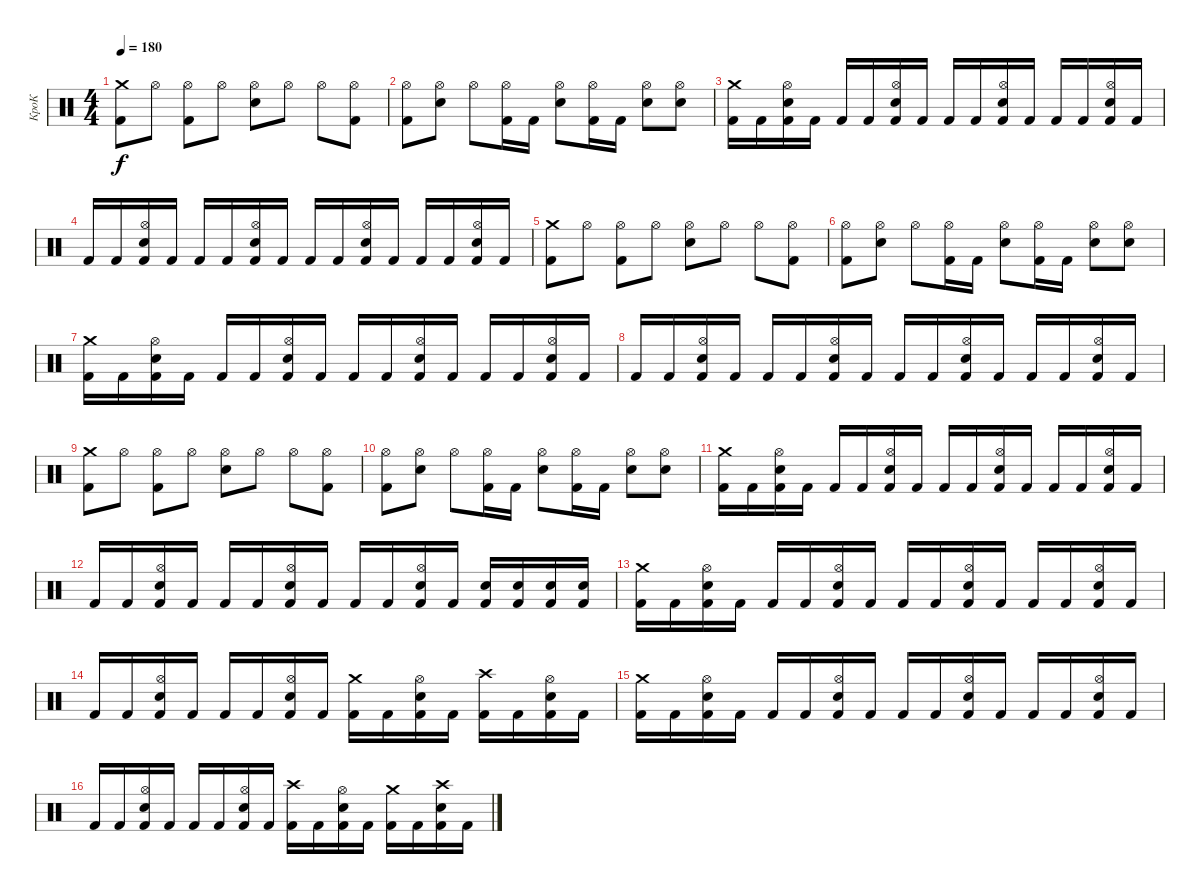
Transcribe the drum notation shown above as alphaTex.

\track ("КроК" "КроК") {instrument percussion}
\staff {score}
\articulation defaults
\ts (4 4)
\tempo 180
\clef neutral
\ks c
("Kick (hit) 2" "Crash medium (hit)").8{dy f} "Hi-Hat (open)".8 ("Kick (hit) 2" "Hi-Hat (open)").8 "Hi-Hat (open)".8 ("Electric Snare (hit)" "Hi-Hat (open)").8 "Hi-Hat (open)".8 "Hi-Hat (open)".8 ("Kick (hit) 2" "Hi-Hat (open)").8 |
("Kick (hit) 2" "Hi-Hat (open)").8 ("Electric Snare (hit)" "Hi-Hat (open)").8 "Hi-Hat (open)".8 ("Kick (hit) 2" "Hi-Hat (open)").16 "Kick (hit) 2".16 ("Electric Snare (hit)" "Hi-Hat (open)").8 ("Kick (hit) 2" "Hi-Hat (open)").16 "Kick (hit) 2".16 ("Electric Snare (hit)" "Hi-Hat (open)").8 ("Electric Snare (hit)" "Hi-Hat (open)").8 |
("Kick (hit) 2" "Crash medium (hit)").16 "Kick (hit) 2".16 ("Kick (hit) 2" "Electric Snare (hit)" "Hi-Hat (open)").16 "Kick (hit) 2".16 "Kick (hit) 2".16 "Kick (hit) 2".16 ("Kick (hit) 2" "Electric Snare (hit)" "Hi-Hat (open)").16 "Kick (hit) 2".16 "Kick (hit) 2".16 "Kick (hit) 2".16 ("Kick (hit) 2" "Electric Snare (hit)" "Hi-Hat (open)").16 "Kick (hit) 2".16 "Kick (hit) 2".16 "Kick (hit) 2".16 ("Kick (hit) 2" "Electric Snare (hit)" "Hi-Hat (open)").16 "Kick (hit) 2".16 |
"Kick (hit) 2".16 "Kick (hit) 2".16 ("Kick (hit) 2" "Electric Snare (hit)" "Hi-Hat (open)").16 "Kick (hit) 2".16 "Kick (hit) 2".16 "Kick (hit) 2".16 ("Kick (hit) 2" "Electric Snare (hit)" "Hi-Hat (open)").16 "Kick (hit) 2".16 "Kick (hit) 2".16 "Kick (hit) 2".16 ("Kick (hit) 2" "Electric Snare (hit)" "Hi-Hat (open)").16 "Kick (hit) 2".16 "Kick (hit) 2".16 "Kick (hit) 2".16 ("Kick (hit) 2" "Electric Snare (hit)" "Hi-Hat (open)").16 "Kick (hit) 2".16 |
("Kick (hit) 2" "Crash medium (hit)").8 "Hi-Hat (open)".8 ("Kick (hit) 2" "Hi-Hat (open)").8 "Hi-Hat (open)".8 ("Electric Snare (hit)" "Hi-Hat (open)").8 "Hi-Hat (open)".8 "Hi-Hat (open)".8 ("Kick (hit) 2" "Hi-Hat (open)").8 |
("Kick (hit) 2" "Hi-Hat (open)").8 ("Electric Snare (hit)" "Hi-Hat (open)").8 "Hi-Hat (open)".8 ("Kick (hit) 2" "Hi-Hat (open)").16 "Kick (hit) 2".16 ("Electric Snare (hit)" "Hi-Hat (open)").8 ("Kick (hit) 2" "Hi-Hat (open)").16 "Kick (hit) 2".16 ("Electric Snare (hit)" "Hi-Hat (open)").8 ("Electric Snare (hit)" "Hi-Hat (open)").8 |
("Kick (hit) 2" "Crash medium (hit)").16 "Kick (hit) 2".16 ("Kick (hit) 2" "Electric Snare (hit)" "Hi-Hat (open)").16 "Kick (hit) 2".16 "Kick (hit) 2".16 "Kick (hit) 2".16 ("Kick (hit) 2" "Electric Snare (hit)" "Hi-Hat (open)").16 "Kick (hit) 2".16 "Kick (hit) 2".16 "Kick (hit) 2".16 ("Kick (hit) 2" "Electric Snare (hit)" "Hi-Hat (open)").16 "Kick (hit) 2".16 "Kick (hit) 2".16 "Kick (hit) 2".16 ("Kick (hit) 2" "Electric Snare (hit)" "Hi-Hat (open)").16 "Kick (hit) 2".16 |
"Kick (hit) 2".16 "Kick (hit) 2".16 ("Kick (hit) 2" "Electric Snare (hit)" "Hi-Hat (open)").16 "Kick (hit) 2".16 "Kick (hit) 2".16 "Kick (hit) 2".16 ("Kick (hit) 2" "Electric Snare (hit)" "Hi-Hat (open)").16 "Kick (hit) 2".16 "Kick (hit) 2".16 "Kick (hit) 2".16 ("Kick (hit) 2" "Electric Snare (hit)" "Hi-Hat (open)").16 "Kick (hit) 2".16 "Kick (hit) 2".16 "Kick (hit) 2".16 ("Kick (hit) 2" "Electric Snare (hit)" "Hi-Hat (open)").16 "Kick (hit) 2".16 |
("Kick (hit) 2" "Crash medium (hit)").8 "Hi-Hat (open)".8 ("Kick (hit) 2" "Hi-Hat (open)").8 "Hi-Hat (open)".8 ("Electric Snare (hit)" "Hi-Hat (open)").8 "Hi-Hat (open)".8 "Hi-Hat (open)".8 ("Kick (hit) 2" "Hi-Hat (open)").8 |
("Kick (hit) 2" "Hi-Hat (open)").8 ("Electric Snare (hit)" "Hi-Hat (open)").8 "Hi-Hat (open)".8 ("Kick (hit) 2" "Hi-Hat (open)").16 "Kick (hit) 2".16 ("Electric Snare (hit)" "Hi-Hat (open)").8 ("Kick (hit) 2" "Hi-Hat (open)").16 "Kick (hit) 2".16 ("Electric Snare (hit)" "Hi-Hat (open)").8 ("Electric Snare (hit)" "Hi-Hat (open)").8 |
("Kick (hit) 2" "Crash medium (hit)").16 "Kick (hit) 2".16 ("Kick (hit) 2" "Electric Snare (hit)" "Hi-Hat (open)").16 "Kick (hit) 2".16 "Kick (hit) 2".16 "Kick (hit) 2".16 ("Kick (hit) 2" "Electric Snare (hit)" "Hi-Hat (open)").16 "Kick (hit) 2".16 "Kick (hit) 2".16 "Kick (hit) 2".16 ("Kick (hit) 2" "Electric Snare (hit)" "Hi-Hat (open)").16 "Kick (hit) 2".16 "Kick (hit) 2".16 "Kick (hit) 2".16 ("Kick (hit) 2" "Electric Snare (hit)" "Hi-Hat (open)").16 "Kick (hit) 2".16 |
"Kick (hit) 2".16 "Kick (hit) 2".16 ("Kick (hit) 2" "Electric Snare (hit)" "Hi-Hat (open)").16 "Kick (hit) 2".16 "Kick (hit) 2".16 "Kick (hit) 2".16 ("Kick (hit) 2" "Electric Snare (hit)" "Hi-Hat (open)").16 "Kick (hit) 2".16 "Kick (hit) 2".16 "Kick (hit) 2".16 ("Kick (hit) 2" "Electric Snare (hit)" "Hi-Hat (open)").16 "Kick (hit) 2".16 ("Kick (hit) 2" "Electric Snare (hit)").16 ("Kick (hit) 2" "Electric Snare (hit)").16 ("Kick (hit) 2" "Electric Snare (hit)").16 ("Kick (hit) 2" "Electric Snare (hit)").16 |
("Kick (hit) 2" "Crash medium (hit)").16 "Kick (hit) 2".16 ("Kick (hit) 2" "Electric Snare (hit)" "Hi-Hat (open)").16 "Kick (hit) 2".16 "Kick (hit) 2".16 "Kick (hit) 2".16 ("Kick (hit) 2" "Electric Snare (hit)" "Hi-Hat (open)").16 "Kick (hit) 2".16 "Kick (hit) 2".16 "Kick (hit) 2".16 ("Kick (hit) 2" "Electric Snare (hit)" "Hi-Hat (open)").16 "Kick (hit) 2".16 "Kick (hit) 2".16 "Kick (hit) 2".16 ("Kick (hit) 2" "Electric Snare (hit)" "Hi-Hat (open)").16 "Kick (hit) 2".16 |
"Kick (hit) 2".16 "Kick (hit) 2".16 ("Kick (hit) 2" "Electric Snare (hit)" "Hi-Hat (open)").16 "Kick (hit) 2".16 "Kick (hit) 2".16 "Kick (hit) 2".16 ("Kick (hit) 2" "Electric Snare (hit)" "Hi-Hat (open)").16 "Kick (hit) 2".16 ("Kick (hit) 2" "Crash medium (hit)").16 "Kick (hit) 2".16 ("Kick (hit) 2" "Electric Snare (hit)" "Hi-Hat (open)").16 "Kick (hit) 2".16 ("Kick (hit) 2" "Crash high (hit)").16 "Kick (hit) 2".16 ("Kick (hit) 2" "Electric Snare (hit)" "Hi-Hat (open)").16 "Kick (hit) 2".16 |
("Kick (hit) 2" "Crash medium (hit)").16 "Kick (hit) 2".16 ("Kick (hit) 2" "Electric Snare (hit)" "Hi-Hat (open)").16 "Kick (hit) 2".16 "Kick (hit) 2".16 "Kick (hit) 2".16 ("Kick (hit) 2" "Electric Snare (hit)" "Hi-Hat (open)").16 "Kick (hit) 2".16 "Kick (hit) 2".16 "Kick (hit) 2".16 ("Kick (hit) 2" "Electric Snare (hit)" "Hi-Hat (open)").16 "Kick (hit) 2".16 "Kick (hit) 2".16 "Kick (hit) 2".16 ("Kick (hit) 2" "Electric Snare (hit)" "Hi-Hat (open)").16 "Kick (hit) 2".16 |
"Kick (hit) 2".16 "Kick (hit) 2".16 ("Kick (hit) 2" "Electric Snare (hit)" "Hi-Hat (open)").16 "Kick (hit) 2".16 "Kick (hit) 2".16 "Kick (hit) 2".16 ("Kick (hit) 2" "Electric Snare (hit)" "Hi-Hat (open)").16 "Kick (hit) 2".16 ("Kick (hit) 2" "Crash high (hit)").16 "Kick (hit) 2".16 ("Kick (hit) 2" "Electric Snare (hit)" "Hi-Hat (open)").16 "Kick (hit) 2".16 ("Kick (hit) 2" "Crash medium (hit)").16 "Kick (hit) 2".16 ("Kick (hit) 2" "Electric Snare (hit)" "Crash high (hit)").16 "Kick (hit) 2".16
